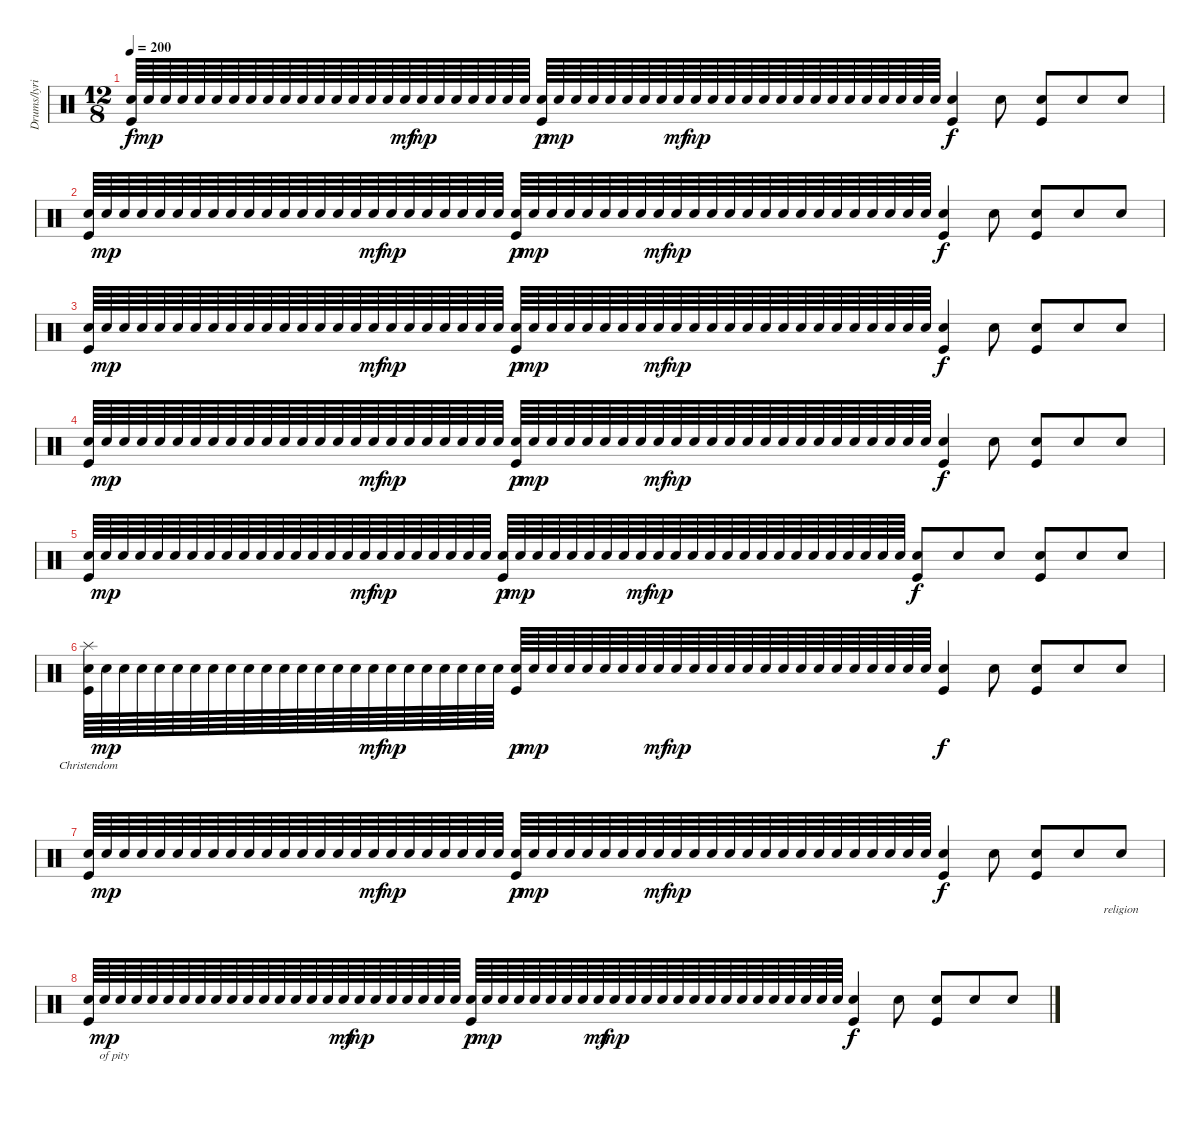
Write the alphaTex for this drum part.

\track ("Drums/lyrics" "Drums/lyri") {instrument percussion}
\staff {score}
\articulation defaults
\ts (12 8)
\tempo 200
\clef neutral
\ks c
("Snare (hit) 2" "Kick (hit)").64{dy f} "Snare (hit) 2".64{dy mp} "Snare (hit) 2".64 "Snare (hit) 2".64 "Snare (hit) 2".64 "Snare (hit) 2".64 "Snare (hit) 2".64 "Snare (hit) 2".64 "Snare (hit) 2".64 "Snare (hit) 2".64 "Snare (hit) 2".64 "Snare (hit) 2".64 "Snare (hit) 2".64 "Snare (hit) 2".64 "Snare (hit) 2".64 "Snare (hit) 2".64 "Snare (hit) 2".64{dy mf} "Snare (hit) 2".64{dy mp} "Snare (hit) 2".64 "Snare (hit) 2".64 "Snare (hit) 2".64 "Snare (hit) 2".64 "Snare (hit) 2".64 "Snare (hit) 2".64 ("Snare (hit) 2" "Kick (hit)").64{dy p} "Snare (hit) 2".64{dy mp} "Snare (hit) 2".64 "Snare (hit) 2".64 "Snare (hit) 2".64 "Snare (hit) 2".64 "Snare (hit) 2".64 "Snare (hit) 2".64 "Snare (hit) 2".64{dy mf} "Snare (hit) 2".64{dy mp} "Snare (hit) 2".64 "Snare (hit) 2".64 "Snare (hit) 2".64 "Snare (hit) 2".64 "Snare (hit) 2".64 "Snare (hit) 2".64 "Snare (hit) 2".64 "Snare (hit) 2".64 "Snare (hit) 2".64 "Snare (hit) 2".64 "Snare (hit) 2".64 "Snare (hit) 2".64 "Snare (hit) 2".64 "Snare (hit) 2".64 ("Snare (hit) 2" "Kick (hit)").4{dy f} "Snare (hit) 2".8 ("Snare (hit) 2" "Kick (hit)").8 "Snare (hit) 2".8 "Snare (hit) 2".8 |
("Snare (hit) 2" "Kick (hit)").64 "Snare (hit) 2".64{dy mp} "Snare (hit) 2".64 "Snare (hit) 2".64 "Snare (hit) 2".64 "Snare (hit) 2".64 "Snare (hit) 2".64 "Snare (hit) 2".64 "Snare (hit) 2".64 "Snare (hit) 2".64 "Snare (hit) 2".64 "Snare (hit) 2".64 "Snare (hit) 2".64 "Snare (hit) 2".64 "Snare (hit) 2".64 "Snare (hit) 2".64 "Snare (hit) 2".64{dy mf} "Snare (hit) 2".64{dy mp} "Snare (hit) 2".64 "Snare (hit) 2".64 "Snare (hit) 2".64 "Snare (hit) 2".64 "Snare (hit) 2".64 "Snare (hit) 2".64 ("Snare (hit) 2" "Kick (hit)").64{dy p} "Snare (hit) 2".64{dy mp} "Snare (hit) 2".64 "Snare (hit) 2".64 "Snare (hit) 2".64 "Snare (hit) 2".64 "Snare (hit) 2".64 "Snare (hit) 2".64 "Snare (hit) 2".64{dy mf} "Snare (hit) 2".64{dy mp} "Snare (hit) 2".64 "Snare (hit) 2".64 "Snare (hit) 2".64 "Snare (hit) 2".64 "Snare (hit) 2".64 "Snare (hit) 2".64 "Snare (hit) 2".64 "Snare (hit) 2".64 "Snare (hit) 2".64 "Snare (hit) 2".64 "Snare (hit) 2".64 "Snare (hit) 2".64 "Snare (hit) 2".64 "Snare (hit) 2".64 ("Snare (hit) 2" "Kick (hit)").4{dy f} "Snare (hit) 2".8 ("Snare (hit) 2" "Kick (hit)").8 "Snare (hit) 2".8 "Snare (hit) 2".8 |
("Snare (hit) 2" "Kick (hit)").64 "Snare (hit) 2".64{dy mp} "Snare (hit) 2".64 "Snare (hit) 2".64 "Snare (hit) 2".64 "Snare (hit) 2".64 "Snare (hit) 2".64 "Snare (hit) 2".64 "Snare (hit) 2".64 "Snare (hit) 2".64 "Snare (hit) 2".64 "Snare (hit) 2".64 "Snare (hit) 2".64 "Snare (hit) 2".64 "Snare (hit) 2".64 "Snare (hit) 2".64 "Snare (hit) 2".64{dy mf} "Snare (hit) 2".64{dy mp} "Snare (hit) 2".64 "Snare (hit) 2".64 "Snare (hit) 2".64 "Snare (hit) 2".64 "Snare (hit) 2".64 "Snare (hit) 2".64 ("Snare (hit) 2" "Kick (hit)").64{dy p} "Snare (hit) 2".64{dy mp} "Snare (hit) 2".64 "Snare (hit) 2".64 "Snare (hit) 2".64 "Snare (hit) 2".64 "Snare (hit) 2".64 "Snare (hit) 2".64 "Snare (hit) 2".64{dy mf} "Snare (hit) 2".64{dy mp} "Snare (hit) 2".64 "Snare (hit) 2".64 "Snare (hit) 2".64 "Snare (hit) 2".64 "Snare (hit) 2".64 "Snare (hit) 2".64 "Snare (hit) 2".64 "Snare (hit) 2".64 "Snare (hit) 2".64 "Snare (hit) 2".64 "Snare (hit) 2".64 "Snare (hit) 2".64 "Snare (hit) 2".64 "Snare (hit) 2".64 ("Snare (hit) 2" "Kick (hit)").4{dy f} "Snare (hit) 2".8 ("Snare (hit) 2" "Kick (hit)").8 "Snare (hit) 2".8 "Snare (hit) 2".8 |
("Snare (hit) 2" "Kick (hit)").64 "Snare (hit) 2".64{dy mp} "Snare (hit) 2".64 "Snare (hit) 2".64 "Snare (hit) 2".64 "Snare (hit) 2".64 "Snare (hit) 2".64 "Snare (hit) 2".64 "Snare (hit) 2".64 "Snare (hit) 2".64 "Snare (hit) 2".64 "Snare (hit) 2".64 "Snare (hit) 2".64 "Snare (hit) 2".64 "Snare (hit) 2".64 "Snare (hit) 2".64 "Snare (hit) 2".64{dy mf} "Snare (hit) 2".64{dy mp} "Snare (hit) 2".64 "Snare (hit) 2".64 "Snare (hit) 2".64 "Snare (hit) 2".64 "Snare (hit) 2".64 "Snare (hit) 2".64 ("Snare (hit) 2" "Kick (hit)").64{dy p} "Snare (hit) 2".64{dy mp} "Snare (hit) 2".64 "Snare (hit) 2".64 "Snare (hit) 2".64 "Snare (hit) 2".64 "Snare (hit) 2".64 "Snare (hit) 2".64 "Snare (hit) 2".64{dy mf} "Snare (hit) 2".64{dy mp} "Snare (hit) 2".64 "Snare (hit) 2".64 "Snare (hit) 2".64 "Snare (hit) 2".64 "Snare (hit) 2".64 "Snare (hit) 2".64 "Snare (hit) 2".64 "Snare (hit) 2".64 "Snare (hit) 2".64 "Snare (hit) 2".64 "Snare (hit) 2".64 "Snare (hit) 2".64 "Snare (hit) 2".64 "Snare (hit) 2".64 ("Snare (hit) 2" "Kick (hit)").4{dy f} "Snare (hit) 2".8 ("Snare (hit) 2" "Kick (hit)").8 "Snare (hit) 2".8 "Snare (hit) 2".8 |
("Snare (hit) 2" "Kick (hit)").64 "Snare (hit) 2".64{dy mp} "Snare (hit) 2".64 "Snare (hit) 2".64 "Snare (hit) 2".64 "Snare (hit) 2".64 "Snare (hit) 2".64 "Snare (hit) 2".64 "Snare (hit) 2".64 "Snare (hit) 2".64 "Snare (hit) 2".64 "Snare (hit) 2".64 "Snare (hit) 2".64 "Snare (hit) 2".64 "Snare (hit) 2".64 "Snare (hit) 2".64 "Snare (hit) 2".64{dy mf} "Snare (hit) 2".64{dy mp} "Snare (hit) 2".64 "Snare (hit) 2".64 "Snare (hit) 2".64 "Snare (hit) 2".64 "Snare (hit) 2".64 "Snare (hit) 2".64 ("Snare (hit) 2" "Kick (hit)").64{dy p} "Snare (hit) 2".64{dy mp} "Snare (hit) 2".64 "Snare (hit) 2".64 "Snare (hit) 2".64 "Snare (hit) 2".64 "Snare (hit) 2".64 "Snare (hit) 2".64 "Snare (hit) 2".64{dy mf} "Snare (hit) 2".64{dy mp} "Snare (hit) 2".64 "Snare (hit) 2".64 "Snare (hit) 2".64 "Snare (hit) 2".64 "Snare (hit) 2".64 "Snare (hit) 2".64 "Snare (hit) 2".64 "Snare (hit) 2".64 "Snare (hit) 2".64 "Snare (hit) 2".64 "Snare (hit) 2".64 "Snare (hit) 2".64 "Snare (hit) 2".64 "Snare (hit) 2".64 ("Snare (hit) 2" "Kick (hit)").8{dy f} "Snare (hit) 2".8 "Snare (hit) 2".8 ("Snare (hit) 2" "Kick (hit)").8 "Snare (hit) 2".8 "Snare (hit) 2".8 |
("Splash (hit)" "Snare (hit) 2" "Kick (hit)").64{lyrics (0 "Christendom") lyrics (1 "") lyrics (2 "") lyrics (3 "") lyrics (4 "")} "Snare (hit) 2".64{lyrics (0 "") lyrics (1 "") lyrics (2 "") lyrics (3 "") lyrics (4 "") dy mp} "Snare (hit) 2".64{lyrics (0 "") lyrics (1 "") lyrics (2 "") lyrics (3 "") lyrics (4 "")} "Snare (hit) 2".64{lyrics (0 "") lyrics (1 "") lyrics (2 "") lyrics (3 "") lyrics (4 "")} "Snare (hit) 2".64{lyrics (0 "") lyrics (1 "") lyrics (2 "") lyrics (3 "") lyrics (4 "")} "Snare (hit) 2".64{lyrics (0 "") lyrics (1 "") lyrics (2 "") lyrics (3 "") lyrics (4 "")} "Snare (hit) 2".64{lyrics (0 "") lyrics (1 "") lyrics (2 "") lyrics (3 "") lyrics (4 "")} "Snare (hit) 2".64{lyrics (0 "") lyrics (1 "") lyrics (2 "") lyrics (3 "") lyrics (4 "")} "Snare (hit) 2".64{lyrics (0 "") lyrics (1 "") lyrics (2 "") lyrics (3 "") lyrics (4 "")} "Snare (hit) 2".64{lyrics (0 "") lyrics (1 "") lyrics (2 "") lyrics (3 "") lyrics (4 "")} "Snare (hit) 2".64{lyrics (0 "") lyrics (1 "") lyrics (2 "") lyrics (3 "") lyrics (4 "")} "Snare (hit) 2".64{lyrics (0 "") lyrics (1 "") lyrics (2 "") lyrics (3 "") lyrics (4 "")} "Snare (hit) 2".64{lyrics (0 "") lyrics (1 "") lyrics (2 "") lyrics (3 "") lyrics (4 "")} "Snare (hit) 2".64{lyrics (0 "") lyrics (1 "") lyrics (2 "") lyrics (3 "") lyrics (4 "")} "Snare (hit) 2".64{lyrics (0 "") lyrics (1 "") lyrics (2 "") lyrics (3 "") lyrics (4 "")} "Snare (hit) 2".64{lyrics (0 "") lyrics (1 "") lyrics (2 "") lyrics (3 "") lyrics (4 "")} "Snare (hit) 2".64{lyrics (0 "") lyrics (1 "") lyrics (2 "") lyrics (3 "") lyrics (4 "") dy mf} "Snare (hit) 2".64{lyrics (0 "") lyrics (1 "") lyrics (2 "") lyrics (3 "") lyrics (4 "") dy mp} "Snare (hit) 2".64{lyrics (0 "") lyrics (1 "") lyrics (2 "") lyrics (3 "") lyrics (4 "")} "Snare (hit) 2".64{lyrics (0 "") lyrics (1 "") lyrics (2 "") lyrics (3 "") lyrics (4 "")} "Snare (hit) 2".64{lyrics (0 "") lyrics (1 "") lyrics (2 "") lyrics (3 "") lyrics (4 "")} "Snare (hit) 2".64{lyrics (0 "") lyrics (1 "") lyrics (2 "") lyrics (3 "") lyrics (4 "")} "Snare (hit) 2".64{lyrics (0 "") lyrics (1 "") lyrics (2 "") lyrics (3 "") lyrics (4 "")} "Snare (hit) 2".64{lyrics (0 "") lyrics (1 "") lyrics (2 "") lyrics (3 "") lyrics (4 "")} ("Snare (hit) 2" "Kick (hit)").64{lyrics (0 "") lyrics (1 "") lyrics (2 "") lyrics (3 "") lyrics (4 "") dy p} "Snare (hit) 2".64{lyrics (0 "") lyrics (1 "") lyrics (2 "") lyrics (3 "") lyrics (4 "") dy mp} "Snare (hit) 2".64{lyrics (0 "") lyrics (1 "") lyrics (2 "") lyrics (3 "") lyrics (4 "")} "Snare (hit) 2".64{lyrics (0 "") lyrics (1 "") lyrics (2 "") lyrics (3 "") lyrics (4 "")} "Snare (hit) 2".64{lyrics (0 "") lyrics (1 "") lyrics (2 "") lyrics (3 "") lyrics (4 "")} "Snare (hit) 2".64{lyrics (0 "") lyrics (1 "") lyrics (2 "") lyrics (3 "") lyrics (4 "")} "Snare (hit) 2".64{lyrics (0 "") lyrics (1 "") lyrics (2 "") lyrics (3 "") lyrics (4 "")} "Snare (hit) 2".64{lyrics (0 "") lyrics (1 "") lyrics (2 "") lyrics (3 "") lyrics (4 "")} "Snare (hit) 2".64{lyrics (0 "") lyrics (1 "") lyrics (2 "") lyrics (3 "") lyrics (4 "") dy mf} "Snare (hit) 2".64{lyrics (0 "") lyrics (1 "") lyrics (2 "") lyrics (3 "") lyrics (4 "") dy mp} "Snare (hit) 2".64{lyrics (0 "") lyrics (1 "") lyrics (2 "") lyrics (3 "") lyrics (4 "")} "Snare (hit) 2".64{lyrics (0 "") lyrics (1 "") lyrics (2 "") lyrics (3 "") lyrics (4 "")} "Snare (hit) 2".64{lyrics (0 "") lyrics (1 "") lyrics (2 "") lyrics (3 "") lyrics (4 "")} "Snare (hit) 2".64{lyrics (0 "") lyrics (1 "") lyrics (2 "") lyrics (3 "") lyrics (4 "")} "Snare (hit) 2".64{lyrics (0 "") lyrics (1 "") lyrics (2 "") lyrics (3 "") lyrics (4 "")} "Snare (hit) 2".64{lyrics (0 "") lyrics (1 "") lyrics (2 "") lyrics (3 "") lyrics (4 "")} "Snare (hit) 2".64{lyrics (0 "") lyrics (1 "") lyrics (2 "") lyrics (3 "") lyrics (4 "")} "Snare (hit) 2".64{lyrics (0 "") lyrics (1 "") lyrics (2 "") lyrics (3 "") lyrics (4 "")} "Snare (hit) 2".64{lyrics (0 "") lyrics (1 "") lyrics (2 "") lyrics (3 "") lyrics (4 "")} "Snare (hit) 2".64{lyrics (0 "") lyrics (1 "") lyrics (2 "") lyrics (3 "") lyrics (4 "")} "Snare (hit) 2".64{lyrics (0 "") lyrics (1 "") lyrics (2 "") lyrics (3 "") lyrics (4 "")} "Snare (hit) 2".64{lyrics (0 "") lyrics (1 "") lyrics (2 "") lyrics (3 "") lyrics (4 "")} "Snare (hit) 2".64{lyrics (0 "") lyrics (1 "") lyrics (2 "") lyrics (3 "") lyrics (4 "")} "Snare (hit) 2".64{lyrics (0 "") lyrics (1 "") lyrics (2 "") lyrics (3 "") lyrics (4 "")} ("Snare (hit) 2" "Kick (hit)").4{lyrics (0 "") lyrics (1 "") lyrics (2 "") lyrics (3 "") lyrics (4 "") dy f} "Snare (hit) 2".8{lyrics (0 "") lyrics (1 "") lyrics (2 "") lyrics (3 "") lyrics (4 "")} ("Snare (hit) 2" "Kick (hit)").8{lyrics (0 "") lyrics (1 "") lyrics (2 "") lyrics (3 "") lyrics (4 "")} "Snare (hit) 2".8{lyrics (0 "") lyrics (1 "") lyrics (2 "") lyrics (3 "") lyrics (4 "")} "Snare (hit) 2".8{lyrics (0 "") lyrics (1 "") lyrics (2 "") lyrics (3 "") lyrics (4 "")} |
("Snare (hit) 2" "Kick (hit)").64{lyrics (0 "") lyrics (1 "") lyrics (2 "") lyrics (3 "") lyrics (4 "")} "Snare (hit) 2".64{lyrics (0 "") lyrics (1 "") lyrics (2 "") lyrics (3 "") lyrics (4 "") dy mp} "Snare (hit) 2".64{lyrics (0 "") lyrics (1 "") lyrics (2 "") lyrics (3 "") lyrics (4 "")} "Snare (hit) 2".64{lyrics (0 "") lyrics (1 "") lyrics (2 "") lyrics (3 "") lyrics (4 "")} "Snare (hit) 2".64{lyrics (0 "") lyrics (1 "") lyrics (2 "") lyrics (3 "") lyrics (4 "")} "Snare (hit) 2".64{lyrics (0 "") lyrics (1 "") lyrics (2 "") lyrics (3 "") lyrics (4 "")} "Snare (hit) 2".64{lyrics (0 "") lyrics (1 "") lyrics (2 "") lyrics (3 "") lyrics (4 "")} "Snare (hit) 2".64{lyrics (0 "") lyrics (1 "") lyrics (2 "") lyrics (3 "") lyrics (4 "")} "Snare (hit) 2".64{lyrics (0 "") lyrics (1 "") lyrics (2 "") lyrics (3 "") lyrics (4 "")} "Snare (hit) 2".64{lyrics (0 "") lyrics (1 "") lyrics (2 "") lyrics (3 "") lyrics (4 "")} "Snare (hit) 2".64{lyrics (0 "") lyrics (1 "") lyrics (2 "") lyrics (3 "") lyrics (4 "")} "Snare (hit) 2".64{lyrics (0 "") lyrics (1 "") lyrics (2 "") lyrics (3 "") lyrics (4 "")} "Snare (hit) 2".64{lyrics (0 "") lyrics (1 "") lyrics (2 "") lyrics (3 "") lyrics (4 "")} "Snare (hit) 2".64{lyrics (0 "") lyrics (1 "") lyrics (2 "") lyrics (3 "") lyrics (4 "")} "Snare (hit) 2".64{lyrics (0 "") lyrics (1 "") lyrics (2 "") lyrics (3 "") lyrics (4 "")} "Snare (hit) 2".64{lyrics (0 "") lyrics (1 "") lyrics (2 "") lyrics (3 "") lyrics (4 "")} "Snare (hit) 2".64{lyrics (0 "") lyrics (1 "") lyrics (2 "") lyrics (3 "") lyrics (4 "") dy mf} "Snare (hit) 2".64{lyrics (0 "") lyrics (1 "") lyrics (2 "") lyrics (3 "") lyrics (4 "") dy mp} "Snare (hit) 2".64{lyrics (0 "") lyrics (1 "") lyrics (2 "") lyrics (3 "") lyrics (4 "")} "Snare (hit) 2".64{lyrics (0 "") lyrics (1 "") lyrics (2 "") lyrics (3 "") lyrics (4 "")} "Snare (hit) 2".64{lyrics (0 "") lyrics (1 "") lyrics (2 "") lyrics (3 "") lyrics (4 "")} "Snare (hit) 2".64{lyrics (0 "") lyrics (1 "") lyrics (2 "") lyrics (3 "") lyrics (4 "")} "Snare (hit) 2".64{lyrics (0 "") lyrics (1 "") lyrics (2 "") lyrics (3 "") lyrics (4 "")} "Snare (hit) 2".64{lyrics (0 "") lyrics (1 "") lyrics (2 "") lyrics (3 "") lyrics (4 "")} ("Snare (hit) 2" "Kick (hit)").64{lyrics (0 "") lyrics (1 "") lyrics (2 "") lyrics (3 "") lyrics (4 "") dy p} "Snare (hit) 2".64{lyrics (0 "") lyrics (1 "") lyrics (2 "") lyrics (3 "") lyrics (4 "") dy mp} "Snare (hit) 2".64{lyrics (0 "") lyrics (1 "") lyrics (2 "") lyrics (3 "") lyrics (4 "")} "Snare (hit) 2".64{lyrics (0 "") lyrics (1 "") lyrics (2 "") lyrics (3 "") lyrics (4 "")} "Snare (hit) 2".64{lyrics (0 "") lyrics (1 "") lyrics (2 "") lyrics (3 "") lyrics (4 "")} "Snare (hit) 2".64{lyrics (0 "") lyrics (1 "") lyrics (2 "") lyrics (3 "") lyrics (4 "")} "Snare (hit) 2".64{lyrics (0 "") lyrics (1 "") lyrics (2 "") lyrics (3 "") lyrics (4 "")} "Snare (hit) 2".64{lyrics (0 "") lyrics (1 "") lyrics (2 "") lyrics (3 "") lyrics (4 "")} "Snare (hit) 2".64{lyrics (0 "") lyrics (1 "") lyrics (2 "") lyrics (3 "") lyrics (4 "") dy mf} "Snare (hit) 2".64{lyrics (0 "") lyrics (1 "") lyrics (2 "") lyrics (3 "") lyrics (4 "") dy mp} "Snare (hit) 2".64{lyrics (0 "") lyrics (1 "") lyrics (2 "") lyrics (3 "") lyrics (4 "")} "Snare (hit) 2".64{lyrics (0 "") lyrics (1 "") lyrics (2 "") lyrics (3 "") lyrics (4 "")} "Snare (hit) 2".64{lyrics (0 "") lyrics (1 "") lyrics (2 "") lyrics (3 "") lyrics (4 "")} "Snare (hit) 2".64{lyrics (0 "") lyrics (1 "") lyrics (2 "") lyrics (3 "") lyrics (4 "")} "Snare (hit) 2".64{lyrics (0 "") lyrics (1 "") lyrics (2 "") lyrics (3 "") lyrics (4 "")} "Snare (hit) 2".64{lyrics (0 "") lyrics (1 "") lyrics (2 "") lyrics (3 "") lyrics (4 "")} "Snare (hit) 2".64{lyrics (0 "") lyrics (1 "") lyrics (2 "") lyrics (3 "") lyrics (4 "")} "Snare (hit) 2".64{lyrics (0 "") lyrics (1 "") lyrics (2 "") lyrics (3 "") lyrics (4 "")} "Snare (hit) 2".64{lyrics (0 "") lyrics (1 "") lyrics (2 "") lyrics (3 "") lyrics (4 "")} "Snare (hit) 2".64{lyrics (0 "") lyrics (1 "") lyrics (2 "") lyrics (3 "") lyrics (4 "")} "Snare (hit) 2".64{lyrics (0 "") lyrics (1 "") lyrics (2 "") lyrics (3 "") lyrics (4 "")} "Snare (hit) 2".64{lyrics (0 "") lyrics (1 "") lyrics (2 "") lyrics (3 "") lyrics (4 "")} "Snare (hit) 2".64{lyrics (0 "") lyrics (1 "") lyrics (2 "") lyrics (3 "") lyrics (4 "")} "Snare (hit) 2".64{lyrics (0 "") lyrics (1 "") lyrics (2 "") lyrics (3 "") lyrics (4 "")} ("Snare (hit) 2" "Kick (hit)").4{lyrics (0 "") lyrics (1 "") lyrics (2 "") lyrics (3 "") lyrics (4 "") dy f} "Snare (hit) 2".8{lyrics (0 "") lyrics (1 "") lyrics (2 "") lyrics (3 "") lyrics (4 "")} ("Snare (hit) 2" "Kick (hit)").8{lyrics (0 "") lyrics (1 "") lyrics (2 "") lyrics (3 "") lyrics (4 "")} "Snare (hit) 2".8{lyrics (0 "") lyrics (1 "") lyrics (2 "") lyrics (3 "") lyrics (4 "")} "Snare (hit) 2".8{lyrics (0 "religion") lyrics (1 "") lyrics (2 "") lyrics (3 "") lyrics (4 "")} |
("Snare (hit) 2" "Kick (hit)").64{lyrics (0 "") lyrics (1 "") lyrics (2 "") lyrics (3 "") lyrics (4 "")} "Snare (hit) 2".64{lyrics (0 "of") lyrics (1 "") lyrics (2 "") lyrics (3 "") lyrics (4 "") dy mp} "Snare (hit) 2".64{lyrics (0 "pity") lyrics (1 "") lyrics (2 "") lyrics (3 "") lyrics (4 "")} "Snare (hit) 2".64{lyrics (0 "") lyrics (1 "") lyrics (2 "") lyrics (3 "") lyrics (4 "")} "Snare (hit) 2".64{lyrics (0 "") lyrics (1 "") lyrics (2 "") lyrics (3 "") lyrics (4 "")} "Snare (hit) 2".64{lyrics (0 "") lyrics (1 "") lyrics (2 "") lyrics (3 "") lyrics (4 "")} "Snare (hit) 2".64{lyrics (0 "") lyrics (1 "") lyrics (2 "") lyrics (3 "") lyrics (4 "")} "Snare (hit) 2".64{lyrics (0 "") lyrics (1 "") lyrics (2 "") lyrics (3 "") lyrics (4 "")} "Snare (hit) 2".64{lyrics (0 "") lyrics (1 "") lyrics (2 "") lyrics (3 "") lyrics (4 "")} "Snare (hit) 2".64{lyrics (0 "") lyrics (1 "") lyrics (2 "") lyrics (3 "") lyrics (4 "")} "Snare (hit) 2".64{lyrics (0 "") lyrics (1 "") lyrics (2 "") lyrics (3 "") lyrics (4 "")} "Snare (hit) 2".64{lyrics (0 "") lyrics (1 "") lyrics (2 "") lyrics (3 "") lyrics (4 "")} "Snare (hit) 2".64{lyrics (0 "") lyrics (1 "") lyrics (2 "") lyrics (3 "") lyrics (4 "")} "Snare (hit) 2".64{lyrics (0 "") lyrics (1 "") lyrics (2 "") lyrics (3 "") lyrics (4 "")} "Snare (hit) 2".64{lyrics (0 "") lyrics (1 "") lyrics (2 "") lyrics (3 "") lyrics (4 "")} "Snare (hit) 2".64{lyrics (0 "") lyrics (1 "") lyrics (2 "") lyrics (3 "") lyrics (4 "")} "Snare (hit) 2".64{lyrics (0 "") lyrics (1 "") lyrics (2 "") lyrics (3 "") lyrics (4 "") dy mf} "Snare (hit) 2".64{lyrics (0 "") lyrics (1 "") lyrics (2 "") lyrics (3 "") lyrics (4 "") dy mp} "Snare (hit) 2".64{lyrics (0 "") lyrics (1 "") lyrics (2 "") lyrics (3 "") lyrics (4 "")} "Snare (hit) 2".64{lyrics (0 "") lyrics (1 "") lyrics (2 "") lyrics (3 "") lyrics (4 "")} "Snare (hit) 2".64{lyrics (0 "") lyrics (1 "") lyrics (2 "") lyrics (3 "") lyrics (4 "")} "Snare (hit) 2".64{lyrics (0 "") lyrics (1 "") lyrics (2 "") lyrics (3 "") lyrics (4 "")} "Snare (hit) 2".64{lyrics (0 "") lyrics (1 "") lyrics (2 "") lyrics (3 "") lyrics (4 "")} "Snare (hit) 2".64{lyrics (0 "") lyrics (1 "") lyrics (2 "") lyrics (3 "") lyrics (4 "")} ("Snare (hit) 2" "Kick (hit)").64{lyrics (0 "") lyrics (1 "") lyrics (2 "") lyrics (3 "") lyrics (4 "") dy p} "Snare (hit) 2".64{lyrics (0 "") lyrics (1 "") lyrics (2 "") lyrics (3 "") lyrics (4 "") dy mp} "Snare (hit) 2".64{lyrics (0 "") lyrics (1 "") lyrics (2 "") lyrics (3 "") lyrics (4 "")} "Snare (hit) 2".64{lyrics (0 "") lyrics (1 "") lyrics (2 "") lyrics (3 "") lyrics (4 "")} "Snare (hit) 2".64{lyrics (0 "") lyrics (1 "") lyrics (2 "") lyrics (3 "") lyrics (4 "")} "Snare (hit) 2".64{lyrics (0 "") lyrics (1 "") lyrics (2 "") lyrics (3 "") lyrics (4 "")} "Snare (hit) 2".64{lyrics (0 "") lyrics (1 "") lyrics (2 "") lyrics (3 "") lyrics (4 "")} "Snare (hit) 2".64{lyrics (0 "") lyrics (1 "") lyrics (2 "") lyrics (3 "") lyrics (4 "")} "Snare (hit) 2".64{lyrics (0 "") lyrics (1 "") lyrics (2 "") lyrics (3 "") lyrics (4 "") dy mf} "Snare (hit) 2".64{lyrics (0 "") lyrics (1 "") lyrics (2 "") lyrics (3 "") lyrics (4 "") dy mp} "Snare (hit) 2".64{lyrics (0 "") lyrics (1 "") lyrics (2 "") lyrics (3 "") lyrics (4 "")} "Snare (hit) 2".64{lyrics (0 "") lyrics (1 "") lyrics (2 "") lyrics (3 "") lyrics (4 "")} "Snare (hit) 2".64{lyrics (0 "") lyrics (1 "") lyrics (2 "") lyrics (3 "") lyrics (4 "")} "Snare (hit) 2".64{lyrics (0 "") lyrics (1 "") lyrics (2 "") lyrics (3 "") lyrics (4 "")} "Snare (hit) 2".64{lyrics (0 "") lyrics (1 "") lyrics (2 "") lyrics (3 "") lyrics (4 "")} "Snare (hit) 2".64{lyrics (0 "") lyrics (1 "") lyrics (2 "") lyrics (3 "") lyrics (4 "")} "Snare (hit) 2".64{lyrics (0 "") lyrics (1 "") lyrics (2 "") lyrics (3 "") lyrics (4 "")} "Snare (hit) 2".64{lyrics (0 "") lyrics (1 "") lyrics (2 "") lyrics (3 "") lyrics (4 "")} "Snare (hit) 2".64{lyrics (0 "") lyrics (1 "") lyrics (2 "") lyrics (3 "") lyrics (4 "")} "Snare (hit) 2".64{lyrics (0 "") lyrics (1 "") lyrics (2 "") lyrics (3 "") lyrics (4 "")} "Snare (hit) 2".64{lyrics (0 "") lyrics (1 "") lyrics (2 "") lyrics (3 "") lyrics (4 "")} "Snare (hit) 2".64{lyrics (0 "") lyrics (1 "") lyrics (2 "") lyrics (3 "") lyrics (4 "")} "Snare (hit) 2".64{lyrics (0 "") lyrics (1 "") lyrics (2 "") lyrics (3 "") lyrics (4 "")} "Snare (hit) 2".64{lyrics (0 "") lyrics (1 "") lyrics (2 "") lyrics (3 "") lyrics (4 "")} ("Snare (hit) 2" "Kick (hit)").4{lyrics (0 "") lyrics (1 "") lyrics (2 "") lyrics (3 "") lyrics (4 "") dy f} "Snare (hit) 2".8{lyrics (0 "") lyrics (1 "") lyrics (2 "") lyrics (3 "") lyrics (4 "")} ("Snare (hit) 2" "Kick (hit)").8{lyrics (0 "") lyrics (1 "") lyrics (2 "") lyrics (3 "") lyrics (4 "")} "Snare (hit) 2".8{lyrics (0 "") lyrics (1 "") lyrics (2 "") lyrics (3 "") lyrics (4 "")} "Snare (hit) 2".8{lyrics (0 "") lyrics (1 "") lyrics (2 "") lyrics (3 "") lyrics (4 "")}
